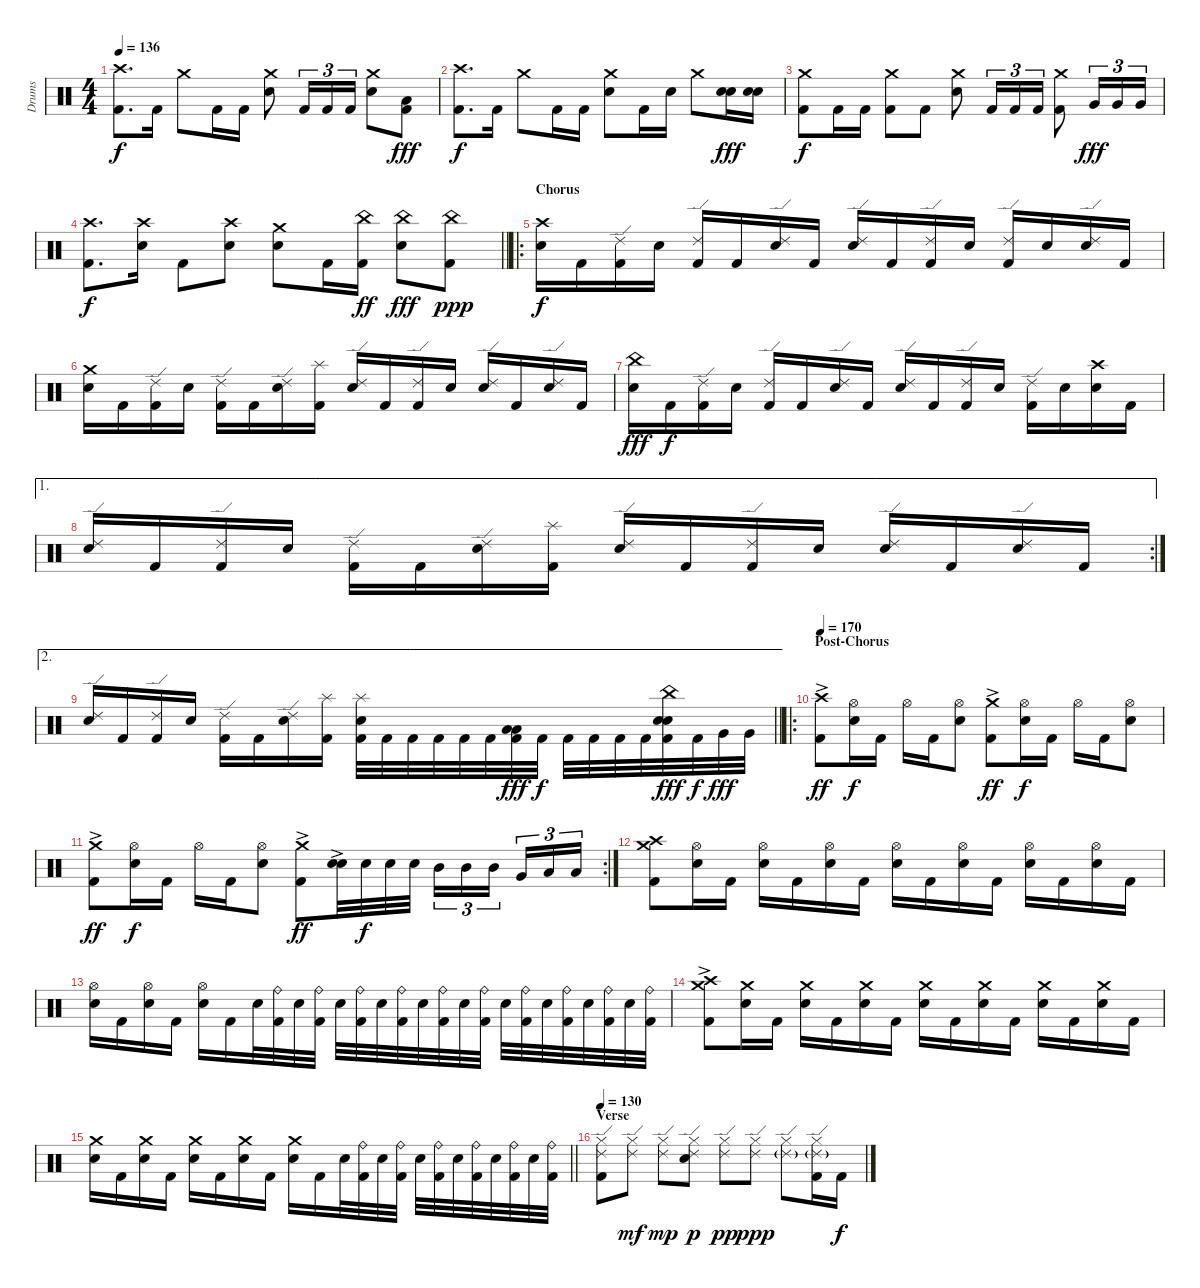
\track ("Drums" "Drums") {instrument percussion}
\staff {score}
\articulation defaults
\ts (4 4)
\tempo 136
\clef neutral
\ks c
("Crash high (hit)" "Kick (hit) 2").8{d dy f} "Kick (hit) 2".16 "Crash medium (hit)".8 "Kick (hit) 2".16 "Kick (hit) 2".16 ("Crash medium (hit)" "Electric Snare (hit)").8 "Kick (hit) 2".16{tu (3 2)} "Kick (hit) 2".16{tu (3 2)} "Kick (hit) 2".16{tu (3 2)} ("Crash medium (hit)" "Electric Snare (hit)").8 ("Low Floor Tom (hit)" "Kick (hit) 2").8{dy fff} |
("Crash high (hit)" "Kick (hit) 2").8{d dy f} "Kick (hit) 2".16 "Crash medium (hit)".8 "Kick (hit) 2".16 "Kick (hit) 2".16 ("Crash medium (hit)" "Electric Snare (hit)").8 "Kick (hit) 2".16 "Electric Snare (hit)".16 "Crash medium (hit)".8 ("Snare (hit) 2" "Electric Snare (hit)").16{dy fff} ("Snare (hit) 2" "Electric Snare (hit)").16 |
("Crash medium (hit)" "Kick (hit) 2").8{dy f} "Kick (hit) 2".16 "Kick (hit) 2".16 ("Crash medium (hit)" "Kick (hit) 2").8 "Kick (hit) 2".8 ("Crash medium (hit)" "Electric Snare (hit)").8 "Kick (hit) 2".16{tu (3 2)} "Kick (hit) 2".16{tu (3 2)} "Kick (hit) 2".16{tu (3 2)} ("Crash medium (hit)" "Kick (hit) 2").8 "Very Low Tom (hit)".16{tu (3 2) dy fff} "Very Low Tom (hit)".16{tu (3 2)} "Very Low Tom (hit)".16{tu (3 2)} |
\barLineRight lightlight
("Crash high (hit)" "Kick (hit) 2").8{d dy f} ("Crash high (hit)" "Electric Snare (hit)").16 "Kick (hit) 2".8 ("Crash high (hit)" "Electric Snare (hit)").8 ("Crash medium (hit)" "Electric Snare (hit)").8 "Kick (hit) 2".16 ("China (hit)" "Kick (hit) 2").16{dy ff} ("China (hit)" "Electric Snare (hit)").8{dy fff} ("China (hit)" "Kick (hit) 2").8{dy ppp} |
\ro
\section ("" "Chorus")
("Crash high (hit)" "Electric Snare (hit)").16{dy f} "Kick (hit) 2".16 ("Ride (edge) 2" "Kick (hit) 2").16 "Electric Snare (hit)".16 ("Ride (edge) 2" "Kick (hit) 2").16 "Kick (hit) 2".16 ("Ride (edge) 2" "Electric Snare (hit)").16 "Kick (hit) 2".16 ("Ride (edge) 2" "Electric Snare (hit)").16 "Kick (hit) 2".16 ("Ride (edge) 2" "Kick (hit) 2").16 "Electric Snare (hit)".16 ("Ride (edge) 2" "Kick (hit) 2").16 "Electric Snare (hit)".16 ("Ride (edge) 2" "Electric Snare (hit)").16 "Kick (hit) 2".16 |
("Crash medium (hit)" "Electric Snare (hit)").16 "Kick (hit) 2".16 ("Ride (edge) 2" "Kick (hit) 2").16 "Electric Snare (hit)".16 ("Ride (edge) 2" "Kick (hit) 2").16 "Kick (hit) 2".16 ("Ride (edge) 2" "Electric Snare (hit)").16 ("Splash (hit)" "Kick (hit) 2").16 ("Ride (edge) 2" "Electric Snare (hit)").16 "Kick (hit) 2".16 ("Ride (edge) 2" "Kick (hit) 2").16 "Electric Snare (hit)".16 ("Ride (edge) 2" "Electric Snare (hit)").16 "Kick (hit) 2".16 ("Ride (edge) 2" "Electric Snare (hit)").16 "Kick (hit) 2".16 |
("China (hit)" "Electric Snare (hit)").16{dy fff} "Kick (hit) 2".16{dy f} ("Ride (edge) 2" "Kick (hit) 2").16 "Electric Snare (hit)".16 ("Ride (edge) 2" "Kick (hit) 2").16 "Kick (hit) 2".16 ("Ride (edge) 2" "Electric Snare (hit)").16 "Kick (hit) 2".16 ("Ride (edge) 2" "Electric Snare (hit)").16 "Kick (hit) 2".16 ("Ride (edge) 2" "Kick (hit) 2").16 "Electric Snare (hit)".16 ("Ride (edge) 2" "Kick (hit) 2").16 "Electric Snare (hit)".16 ("Crash high (hit)" "Electric Snare (hit)").16 "Kick (hit) 2".16 |
\ae 1
\rc 2
("Ride (edge) 2" "Electric Snare (hit)").16 "Kick (hit) 2".16 ("Ride (edge) 2" "Kick (hit) 2").16 "Electric Snare (hit)".16 ("Ride (edge) 2" "Kick (hit) 2").16 "Kick (hit) 2".16 ("Ride (edge) 2" "Electric Snare (hit)").16 ("Splash (hit)" "Kick (hit) 2").16 ("Ride (edge) 2" "Electric Snare (hit)").16 "Kick (hit) 2".16 ("Ride (edge) 2" "Kick (hit) 2").16 "Electric Snare (hit)".16 ("Ride (edge) 2" "Electric Snare (hit)").16 "Kick (hit) 2".16 ("Ride (edge) 2" "Electric Snare (hit)").16 "Kick (hit) 2".16 |
\ae 2
\barLineRight lightlight
("Ride (edge) 2" "Electric Snare (hit)").16 "Kick (hit) 2".16 ("Ride (edge) 2" "Kick (hit) 2").16 "Electric Snare (hit)".16 ("Ride (edge) 2" "Kick (hit) 2").16 "Kick (hit) 2".16 ("Ride (edge) 2" "Electric Snare (hit)").16 ("Splash (hit)" "Kick (hit) 2").16 ("Splash (hit)" "Electric Snare (hit)" "Kick (hit) 2").32 "Kick (hit) 2".32 "Kick (hit) 2".32 "Kick (hit) 2".32 "Kick (hit) 2".32 "Kick (hit) 2".32 ("Low Tom (hit)" "Low Floor Tom (hit)" "Kick (hit) 2").32{dy fff} "Kick (hit) 2".32{dy f} "Kick (hit) 2".32 "Kick (hit) 2".32 "Kick (hit) 2".32 "Kick (hit) 2".32 ("China (hit)" "Snare (hit) 2" "Electric Snare (hit)" "Kick (hit) 2").32{dy fff} "Kick (hit) 2".32{dy f} "Very Low Tom (hit)".32{dy fff} "Very Low Tom (hit)".32 |
\ro
\section ("" "Post-Chorus")
\tempo 170
("Crash high (hit)"{ac} "Kick (hit) 2").8{dy ff} ("Hi-Hat (open)" "Electric Snare (hit)").16{dy f} "Kick (hit) 2".16 "Hi-Hat (open)".16 "Kick (hit) 2".16 ("Hi-Hat (open)" "Electric Snare (hit)").8 ("Crash medium (hit)"{ac} "Kick (hit) 2").8{dy ff} ("Hi-Hat (open)" "Electric Snare (hit)").16{dy f} "Kick (hit) 2".16 "Hi-Hat (open)".16 "Kick (hit) 2".16 ("Hi-Hat (open)" "Electric Snare (hit)").8 |
\rc 2
("Crash medium (hit)"{ac} "Kick (hit) 2").8{dy ff} ("Hi-Hat (open)" "Electric Snare (hit)").16{dy f} "Kick (hit) 2".16 "Hi-Hat (open)".16 "Kick (hit) 2".16 ("Hi-Hat (open)" "Electric Snare (hit)").8 ("Crash medium (hit)"{ac} "Kick (hit) 2").8{dy ff} ("Snare (hit) 2" "Electric Snare (hit)"{ac}).32 "Electric Snare (hit)".32{dy f} "Electric Snare (hit)".32 "Electric Snare (hit)".32 "Mid Tom (hit)".16{tu (3 2)} "Mid Tom (hit)".16{tu (3 2)} "Mid Tom (hit)".16{tu (3 2) beam splitsecondary} "Very Low Tom (hit)".16{tu (3 2)} "Low Floor Tom (hit)".16{tu (3 2)} "Low Floor Tom (hit)".16{tu (3 2)} |
("Crash high (hit)" "Crash medium (hit)" "Kick (hit) 2").8 ("Hi-Hat (open)" "Electric Snare (hit)").16 "Kick (hit) 2".16 ("Hi-Hat (open)" "Electric Snare (hit)").16 "Kick (hit) 2".16 ("Hi-Hat (open)" "Electric Snare (hit)").16 "Kick (hit) 2".16 ("Hi-Hat (open)" "Electric Snare (hit)").16 "Kick (hit) 2".16 ("Hi-Hat (open)" "Electric Snare (hit)").16 "Kick (hit) 2".16 ("Hi-Hat (open)" "Electric Snare (hit)").16 "Kick (hit) 2".16 ("Hi-Hat (open)" "Electric Snare (hit)").16 "Kick (hit) 2".16 |
("Hi-Hat (open)" "Electric Snare (hit)").16 "Kick (hit) 2".16 ("Hi-Hat (open)" "Electric Snare (hit)").16 "Kick (hit) 2".16 ("Hi-Hat (open)" "Electric Snare (hit)").16 "Kick (hit) 2".16 "Electric Snare (hit)".32 ("Ride (bell)" "Kick (hit) 2").32 "Electric Snare (hit)".32 ("Ride (bell)" "Kick (hit) 2").32 "Electric Snare (hit)".32 ("Ride (bell)" "Kick (hit) 2").32 "Electric Snare (hit)".32 ("Ride (bell)" "Kick (hit) 2").32 "Electric Snare (hit)".32 ("Ride (bell)" "Kick (hit) 2").32 "Electric Snare (hit)".32 ("Ride (bell)" "Kick (hit) 2").32 "Electric Snare (hit)".32 ("Ride (bell)" "Kick (hit) 2").32 "Electric Snare (hit)".32 ("Ride (bell)" "Kick (hit) 2").32 "Electric Snare (hit)".32 ("Ride (bell)" "Kick (hit) 2").32 "Electric Snare (hit)".32 ("Ride (bell)" "Kick (hit) 2").32 |
("Crash high (hit)"{ac} "Crash medium (hit)" "Kick (hit) 2").8 ("Crash medium (hit)" "Electric Snare (hit)").16 "Kick (hit) 2".16 ("Crash medium (hit)" "Electric Snare (hit)").16 "Kick (hit) 2".16 ("Crash medium (hit)" "Electric Snare (hit)").16 "Kick (hit) 2".16 ("Crash medium (hit)" "Electric Snare (hit)").16 "Kick (hit) 2".16 ("Crash medium (hit)" "Electric Snare (hit)").16 "Kick (hit) 2".16 ("Crash medium (hit)" "Electric Snare (hit)").16 "Kick (hit) 2".16 ("Crash medium (hit)" "Electric Snare (hit)").16 "Kick (hit) 2".16 |
\barLineRight lightlight
("Crash medium (hit)" "Electric Snare (hit)").16 "Kick (hit) 2".16 ("Crash medium (hit)" "Electric Snare (hit)").16 "Kick (hit) 2".16 ("Crash medium (hit)" "Electric Snare (hit)").16 "Kick (hit) 2".16 ("Crash medium (hit)" "Electric Snare (hit)").16 "Kick (hit) 2".16 ("Crash medium (hit)" "Electric Snare (hit)").16 "Kick (hit) 2".16 "Electric Snare (hit)".32 ("Ride (bell)" "Kick (hit) 2").32 "Electric Snare (hit)".32 ("Ride (bell)" "Kick (hit) 2").32 "Electric Snare (hit)".32 ("Ride (bell)" "Kick (hit) 2").32 "Electric Snare (hit)".32 ("Ride (bell)" "Kick (hit) 2").32 "Electric Snare (hit)".32 ("Ride (bell)" "Kick (hit) 2").32 "Electric Snare (hit)".32 ("Ride (bell)" "Kick (hit) 2").32 |
\section ("" "Verse")
\tempo 130
("Ride (edge) 2" "Hi-Hat (closed)" "Kick (hit) 2").8 ("Ride (edge) 2" "Hi-Hat (closed)").8{dy mf} ("Ride (edge) 2" "Hi-Hat (closed)").8{dy mp} ("Ride (edge) 2" "Hi-Hat (closed)" "Electric Snare (hit)").8{dy p} ("Ride (edge) 2" "Hi-Hat (closed)").8{dy pp} ("Ride (edge) 2" "Hi-Hat (closed)").8{dy ppp} ("Ride (edge) 2"{g} "Hi-Hat (closed)").8 ("Ride (edge) 2"{g} "Hi-Hat (closed)" "Kick (hit) 2").16 "Kick (hit) 2".16{dy f}
